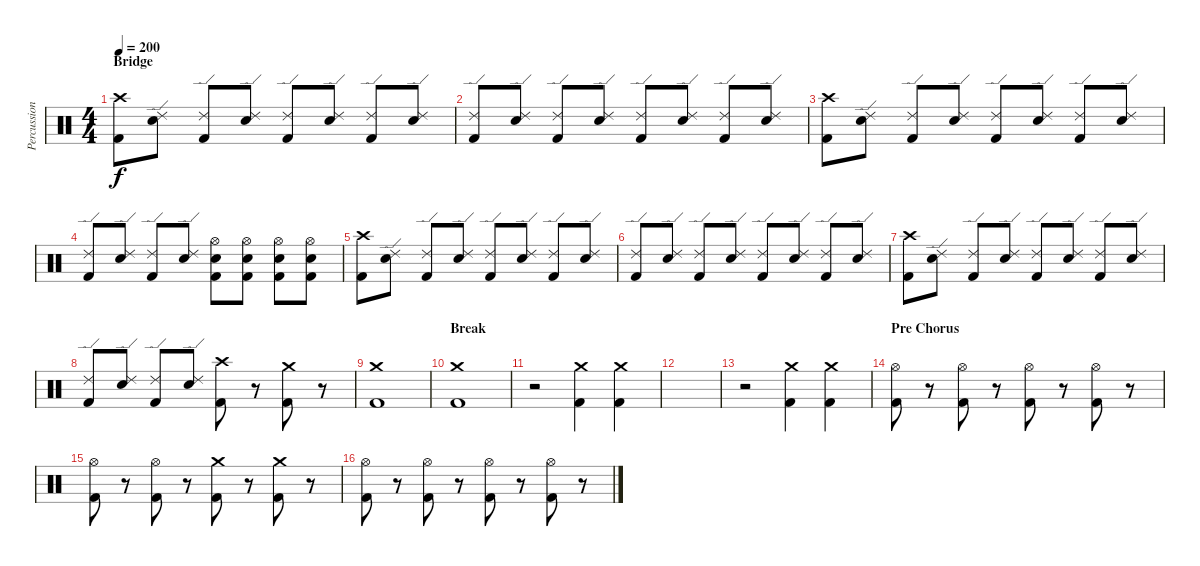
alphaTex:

\track ("Percussion" "Percussion") {instrument percussion}
\staff {score}
\articulation defaults
\ts (4 4)
\section ("" "Bridge")
\tempo 200
\clef neutral
\ks c
("Crash high (hit)" "Kick (hit) 2").8{dy f} ("Ride (edge) 2" "Snare (hit) 2").8 ("Ride (edge) 2" "Kick (hit) 2").8 ("Ride (edge) 2" "Snare (hit) 2").8 ("Ride (edge) 2" "Kick (hit) 2").8 ("Ride (edge) 2" "Snare (hit) 2").8 ("Ride (edge) 2" "Kick (hit) 2").8 ("Ride (edge) 2" "Snare (hit) 2").8 |
("Ride (edge) 2" "Kick (hit) 2").8 ("Ride (edge) 2" "Snare (hit) 2").8 ("Ride (edge) 2" "Kick (hit) 2").8 ("Ride (edge) 2" "Snare (hit) 2").8 ("Ride (edge) 2" "Kick (hit) 2").8 ("Ride (edge) 2" "Snare (hit) 2").8 ("Ride (edge) 2" "Kick (hit) 2").8 ("Ride (edge) 2" "Snare (hit) 2").8 |
("Crash high (hit)" "Kick (hit) 2").8 ("Ride (edge) 2" "Snare (hit) 2").8 ("Ride (edge) 2" "Kick (hit) 2").8 ("Ride (edge) 2" "Snare (hit) 2").8 ("Ride (edge) 2" "Kick (hit) 2").8 ("Ride (edge) 2" "Snare (hit) 2").8 ("Ride (edge) 2" "Kick (hit) 2").8 ("Ride (edge) 2" "Snare (hit) 2").8 |
("Ride (edge) 2" "Kick (hit) 2").8 ("Ride (edge) 2" "Snare (hit) 2").8 ("Ride (edge) 2" "Kick (hit) 2").8 ("Ride (edge) 2" "Snare (hit) 2").8 ("Hi-Hat (open)" "Snare (hit) 2" "Kick (hit) 2").8 ("Hi-Hat (open)" "Snare (hit) 2" "Kick (hit) 2").8 ("Hi-Hat (open)" "Snare (hit) 2" "Kick (hit) 2").8 ("Hi-Hat (open)" "Snare (hit) 2" "Kick (hit) 2").8 |
("Crash high (hit)" "Kick (hit) 2").8 ("Ride (edge) 2" "Snare (hit) 2").8 ("Ride (edge) 2" "Kick (hit) 2").8 ("Ride (edge) 2" "Snare (hit) 2").8 ("Ride (edge) 2" "Kick (hit) 2").8 ("Ride (edge) 2" "Snare (hit) 2").8 ("Ride (edge) 2" "Kick (hit) 2").8 ("Ride (edge) 2" "Snare (hit) 2").8 |
("Ride (edge) 2" "Kick (hit) 2").8 ("Ride (edge) 2" "Snare (hit) 2").8 ("Ride (edge) 2" "Kick (hit) 2").8 ("Ride (edge) 2" "Snare (hit) 2").8 ("Ride (edge) 2" "Kick (hit) 2").8 ("Ride (edge) 2" "Snare (hit) 2").8 ("Ride (edge) 2" "Kick (hit) 2").8 ("Ride (edge) 2" "Snare (hit) 2").8 |
("Crash high (hit)" "Kick (hit) 2").8 ("Ride (edge) 2" "Snare (hit) 2").8 ("Ride (edge) 2" "Kick (hit) 2").8 ("Ride (edge) 2" "Snare (hit) 2").8 ("Ride (edge) 2" "Kick (hit) 2").8 ("Ride (edge) 2" "Snare (hit) 2").8 ("Ride (edge) 2" "Kick (hit) 2").8 ("Ride (edge) 2" "Snare (hit) 2").8 |
("Ride (edge) 2" "Kick (hit) 2").8 ("Ride (edge) 2" "Snare (hit) 2").8 ("Ride (edge) 2" "Kick (hit) 2").8 ("Ride (edge) 2" "Snare (hit) 2").8 ("Crash high (hit)" "Kick (hit) 2").8 r.8 ("Crash medium (hit)" "Kick (hit) 2").8 r.8 |
("Crash medium (hit)" "Kick (hit) 2").1 |
\section ("" "Break")
("Crash medium (hit)" "Kick (hit) 2").1 |
r.2 ("Crash medium (hit)" "Kick (hit) 2").4 ("Crash medium (hit)" "Kick (hit) 2").4 |
|
r.2 ("Crash medium (hit)" "Kick (hit) 2").4 ("Crash medium (hit)" "Kick (hit) 2").4 |
\section ("" "Pre Chorus")
("Hi-Hat (open)" "Kick (hit) 2").8 r.8 ("Hi-Hat (open)" "Kick (hit) 2").8 r.8 ("Hi-Hat (open)" "Kick (hit) 2").8 r.8 ("Hi-Hat (open)" "Kick (hit) 2").8 r.8 |
("Hi-Hat (open)" "Kick (hit) 2").8 r.8 ("Hi-Hat (open)" "Kick (hit) 2").8 r.8 ("Crash medium (hit)" "Kick (hit) 2").8 r.8 ("Crash medium (hit)" "Kick (hit) 2").8 r.8 |
("Hi-Hat (open)" "Kick (hit) 2").8 r.8 ("Hi-Hat (open)" "Kick (hit) 2").8 r.8 ("Hi-Hat (open)" "Kick (hit) 2").8 r.8 ("Hi-Hat (open)" "Kick (hit) 2").8 r.8
